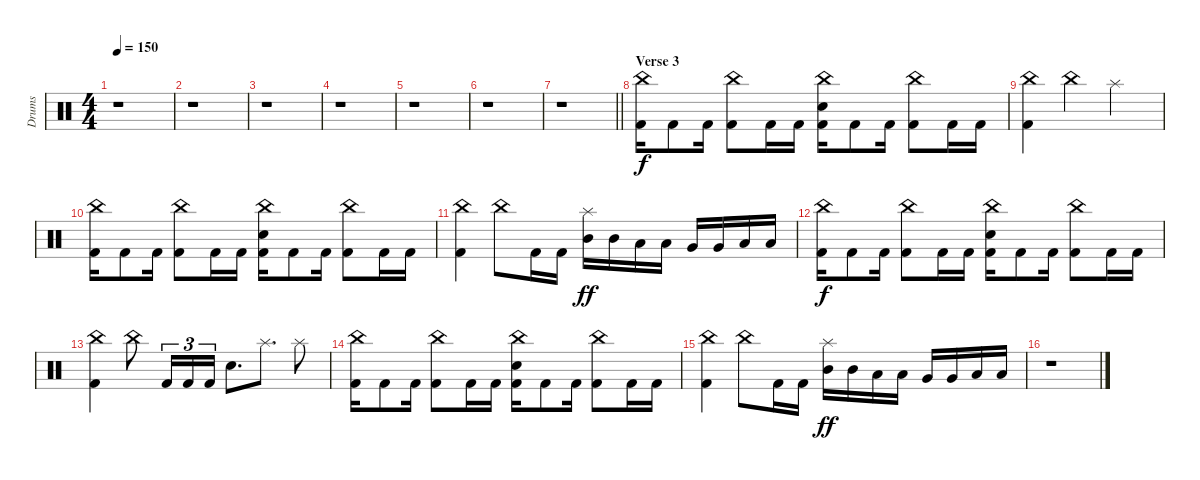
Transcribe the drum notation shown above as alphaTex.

\track ("Drums" "Drums") {instrument percussion}
\staff {score}
\articulation defaults
\ts (4 4)
\tempo 150
\clef neutral
\ks c
r.1{dy ff} |
r.1 |
r.1 |
r.1 |
r.1 |
r.1 |
\barLineRight lightlight
r.1 |
\section ("" "Verse 3")
("China (hit)" "Kick (hit) 2").16{dy f} "Kick (hit) 2".8 "Kick (hit) 2".16 ("China (hit)" "Kick (hit) 2").8 "Kick (hit) 2".16 "Kick (hit) 2".16 ("China (hit)" "Electric Snare (hit)" "Kick (hit) 2").16 "Kick (hit) 2".8 "Kick (hit) 2".16 ("China (hit)" "Kick (hit) 2").8 "Kick (hit) 2".16 "Kick (hit) 2".16 |
("China (hit)" "Kick (hit) 2").4 "China (hit)".4 "Splash (hit)".2 |
("China (hit)" "Kick (hit) 2").16 "Kick (hit) 2".8 "Kick (hit) 2".16 ("China (hit)" "Kick (hit) 2").8 "Kick (hit) 2".16 "Kick (hit) 2".16 ("China (hit)" "Electric Snare (hit)" "Kick (hit) 2").16 "Kick (hit) 2".8 "Kick (hit) 2".16 ("China (hit)" "Kick (hit) 2").8 "Kick (hit) 2".16 "Kick (hit) 2".16 |
("China (hit)" "Kick (hit) 2").4 "China (hit)".8 "Kick (hit) 2".16 "Kick (hit) 2".16 ("Splash (hit)" "Mid Tom (hit)").16{dy ff} "Mid Tom (hit)".16 "Low Tom (hit)".16 "Low Tom (hit)".16 "Very Low Tom (hit)".16 "Very Low Tom (hit)".16 "Low Floor Tom (hit)".16 "Low Floor Tom (hit)".16 |
("China (hit)" "Kick (hit) 2").16{dy f} "Kick (hit) 2".8 "Kick (hit) 2".16 ("China (hit)" "Kick (hit) 2").8 "Kick (hit) 2".16 "Kick (hit) 2".16 ("China (hit)" "Electric Snare (hit)" "Kick (hit) 2").16 "Kick (hit) 2".8 "Kick (hit) 2".16 ("China (hit)" "Kick (hit) 2").8 "Kick (hit) 2".16 "Kick (hit) 2".16 |
("China (hit)" "Kick (hit) 2").4 "China (hit)".8 "Kick (hit) 2".16{tu (3 2)} "Kick (hit) 2".16{tu (3 2)} "Kick (hit) 2".16{tu (3 2)} "Electric Snare (hit)".8{d} "Splash (hit)".8{d} "Splash (hit)".8 |
("China (hit)" "Kick (hit) 2").16 "Kick (hit) 2".8 "Kick (hit) 2".16 ("China (hit)" "Kick (hit) 2").8 "Kick (hit) 2".16 "Kick (hit) 2".16 ("China (hit)" "Electric Snare (hit)" "Kick (hit) 2").16 "Kick (hit) 2".8 "Kick (hit) 2".16 ("China (hit)" "Kick (hit) 2").8 "Kick (hit) 2".16 "Kick (hit) 2".16 |
("China (hit)" "Kick (hit) 2").4 "China (hit)".8 "Kick (hit) 2".16 "Kick (hit) 2".16 ("Splash (hit)" "Mid Tom (hit)").16{dy ff} "Mid Tom (hit)".16 "Low Tom (hit)".16 "Low Tom (hit)".16 "Very Low Tom (hit)".16 "Very Low Tom (hit)".16 "Low Floor Tom (hit)".16 "Low Floor Tom (hit)".16 |
r.1
